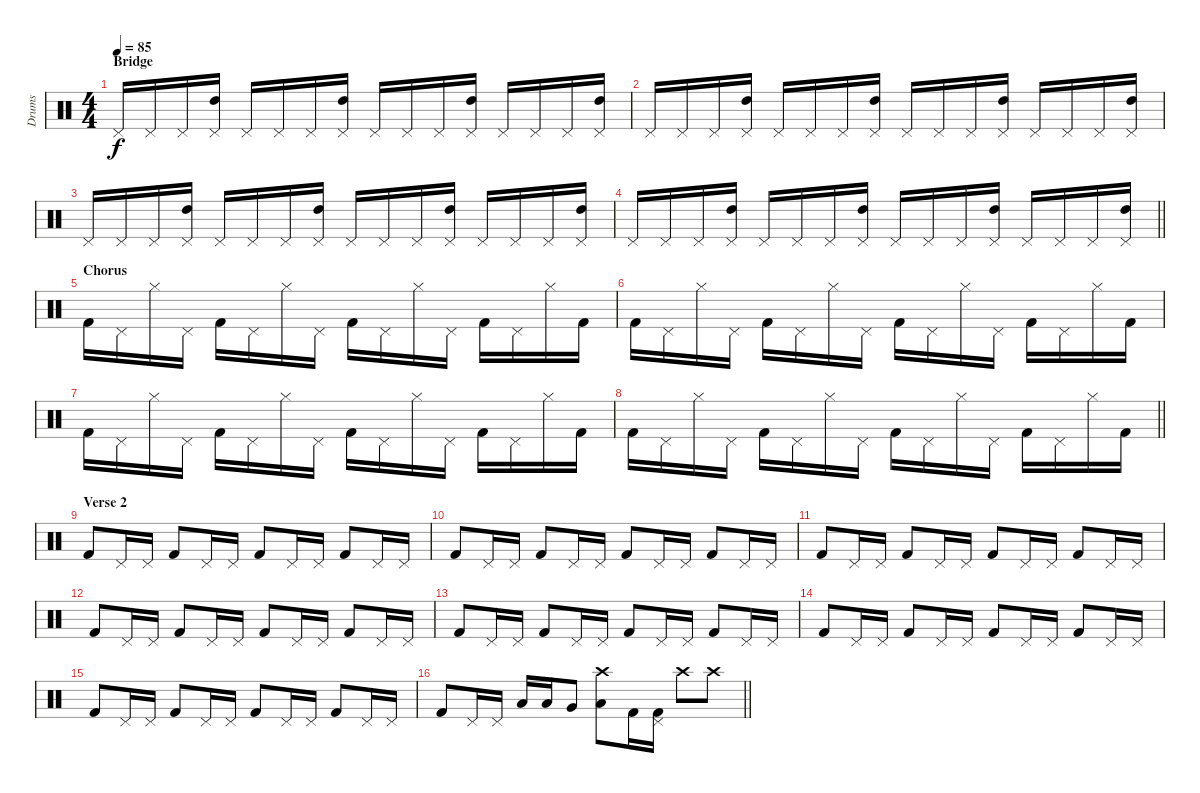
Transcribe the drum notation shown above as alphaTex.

\track ("Drums" "Drums") {instrument percussion}
\staff {score}
\articulation defaults
\ts (4 4)
\section ("" "Bridge")
\tempo 85
\clef neutral
\ks c "Pedal Hi-Hat (hit)".16{dy f} "Pedal Hi-Hat (hit)".16 "Pedal Hi-Hat (hit)".16
("High Tom (hit)" "Pedal Hi-Hat (hit)").16 "Pedal Hi-Hat (hit)".16 "Pedal Hi-Hat (hit)".16 "Pedal Hi-Hat (hit)".16 ("High Tom (hit)" "Pedal Hi-Hat (hit)").16 "Pedal Hi-Hat (hit)".16 "Pedal Hi-Hat (hit)".16 "Pedal Hi-Hat (hit)".16 ("High Tom (hit)" "Pedal Hi-Hat (hit)").16 "Pedal Hi-Hat (hit)".16 "Pedal Hi-Hat (hit)".16 "Pedal Hi-Hat (hit)".16 ("High Tom (hit)" "Pedal Hi-Hat (hit)").16 |
"Pedal Hi-Hat (hit)".16 "Pedal Hi-Hat (hit)".16 "Pedal Hi-Hat (hit)".16 ("High Tom (hit)" "Pedal Hi-Hat (hit)").16 "Pedal Hi-Hat (hit)".16 "Pedal Hi-Hat (hit)".16 "Pedal Hi-Hat (hit)".16 ("High Tom (hit)" "Pedal Hi-Hat (hit)").16 "Pedal Hi-Hat (hit)".16 "Pedal Hi-Hat (hit)".16 "Pedal Hi-Hat (hit)".16 ("High Tom (hit)" "Pedal Hi-Hat (hit)").16 "Pedal Hi-Hat (hit)".16 "Pedal Hi-Hat (hit)".16 "Pedal Hi-Hat (hit)".16 ("High Tom (hit)" "Pedal Hi-Hat (hit)").16 |
"Pedal Hi-Hat (hit)".16 "Pedal Hi-Hat (hit)".16 "Pedal Hi-Hat (hit)".16 ("High Tom (hit)" "Pedal Hi-Hat (hit)").16 "Pedal Hi-Hat (hit)".16 "Pedal Hi-Hat (hit)".16 "Pedal Hi-Hat (hit)".16 ("High Tom (hit)" "Pedal Hi-Hat (hit)").16 "Pedal Hi-Hat (hit)".16 "Pedal Hi-Hat (hit)".16 "Pedal Hi-Hat (hit)".16 ("High Tom (hit)" "Pedal Hi-Hat (hit)").16 "Pedal Hi-Hat (hit)".16 "Pedal Hi-Hat (hit)".16 "Pedal Hi-Hat (hit)".16 ("High Tom (hit)" "Pedal Hi-Hat (hit)").16 |
\barLineRight lightlight "Pedal Hi-Hat (hit)".16 "Pedal Hi-Hat (hit)".16 "Pedal Hi-Hat (hit)".16
("High Tom (hit)" "Pedal Hi-Hat (hit)").16 "Pedal Hi-Hat (hit)".16 "Pedal Hi-Hat (hit)".16 "Pedal Hi-Hat (hit)".16 ("High Tom (hit)" "Pedal Hi-Hat (hit)").16 "Pedal Hi-Hat (hit)".16 "Pedal Hi-Hat (hit)".16 "Pedal Hi-Hat (hit)".16 ("High Tom (hit)" "Pedal Hi-Hat (hit)").16 "Pedal Hi-Hat (hit)".16 "Pedal Hi-Hat (hit)".16 "Pedal Hi-Hat (hit)".16 ("High Tom (hit)" "Pedal Hi-Hat (hit)").16 |
\section ("" "Chorus")
"Kick (hit) 2".16 "Pedal Hi-Hat (hit)".16 "Hi-Hat (closed)".16 "Pedal Hi-Hat (hit)".16 "Kick (hit) 2".16 "Pedal Hi-Hat (hit)".16 "Hi-Hat (closed)".16 "Pedal Hi-Hat (hit)".16 "Kick (hit) 2".16 "Pedal Hi-Hat (hit)".16 "Hi-Hat (closed)".16 "Pedal Hi-Hat (hit)".16 "Kick (hit) 2".16 "Pedal Hi-Hat (hit)".16 "Hi-Hat (closed)".16 "Kick (hit) 2".16 |
"Kick (hit) 2".16 "Pedal Hi-Hat (hit)".16 "Hi-Hat (closed)".16 "Pedal Hi-Hat (hit)".16 "Kick (hit) 2".16 "Pedal Hi-Hat (hit)".16 "Hi-Hat (closed)".16 "Pedal Hi-Hat (hit)".16 "Kick (hit) 2".16 "Pedal Hi-Hat (hit)".16 "Hi-Hat (closed)".16 "Pedal Hi-Hat (hit)".16 "Kick (hit) 2".16 "Pedal Hi-Hat (hit)".16 "Hi-Hat (closed)".16 "Kick (hit) 2".16 |
"Kick (hit) 2".16 "Pedal Hi-Hat (hit)".16 "Hi-Hat (closed)".16 "Pedal Hi-Hat (hit)".16 "Kick (hit) 2".16 "Pedal Hi-Hat (hit)".16 "Hi-Hat (closed)".16 "Pedal Hi-Hat (hit)".16 "Kick (hit) 2".16 "Pedal Hi-Hat (hit)".16 "Hi-Hat (closed)".16 "Pedal Hi-Hat (hit)".16 "Kick (hit) 2".16 "Pedal Hi-Hat (hit)".16 "Hi-Hat (closed)".16 "Kick (hit) 2".16 |
\barLineRight lightlight "Kick (hit) 2".16 "Pedal Hi-Hat (hit)".16 "Hi-Hat (closed)".16 "Pedal Hi-Hat (hit)".16 "Kick (hit) 2".16 "Pedal Hi-Hat (hit)".16 "Hi-Hat (closed)".16 "Pedal Hi-Hat (hit)".16 "Kick (hit) 2".16 "Pedal Hi-Hat (hit)".16 "Hi-Hat (closed)".16 "Pedal Hi-Hat (hit)".16 "Kick (hit) 2".16 "Pedal Hi-Hat (hit)".16 "Hi-Hat (closed)".16 "Kick (hit) 2".16
|
\section ("" "Verse 2")
"Kick (hit) 2".8 "Pedal Hi-Hat (hit)".16 "Pedal Hi-Hat (hit)".16 "Kick (hit) 2".8 "Pedal Hi-Hat (hit)".16 "Pedal Hi-Hat (hit)".16 "Kick (hit) 2".8 "Pedal Hi-Hat (hit)".16 "Pedal Hi-Hat (hit)".16 "Kick (hit) 2".8 "Pedal Hi-Hat (hit)".16 "Pedal Hi-Hat (hit)".16 |
"Kick (hit) 2".8 "Pedal Hi-Hat (hit)".16 "Pedal Hi-Hat (hit)".16 "Kick (hit) 2".8 "Pedal Hi-Hat (hit)".16 "Pedal Hi-Hat (hit)".16 "Kick (hit) 2".8 "Pedal Hi-Hat (hit)".16 "Pedal Hi-Hat (hit)".16 "Kick (hit) 2".8 "Pedal Hi-Hat (hit)".16 "Pedal Hi-Hat (hit)".16 |
"Kick (hit) 2".8 "Pedal Hi-Hat (hit)".16 "Pedal Hi-Hat (hit)".16 "Kick (hit) 2".8 "Pedal Hi-Hat (hit)".16 "Pedal Hi-Hat (hit)".16 "Kick (hit) 2".8 "Pedal Hi-Hat (hit)".16 "Pedal Hi-Hat (hit)".16 "Kick (hit) 2".8 "Pedal Hi-Hat (hit)".16 "Pedal Hi-Hat (hit)".16 |
"Kick (hit) 2".8 "Pedal Hi-Hat (hit)".16 "Pedal Hi-Hat (hit)".16 "Kick (hit) 2".8 "Pedal Hi-Hat (hit)".16 "Pedal Hi-Hat (hit)".16 "Kick (hit) 2".8 "Pedal Hi-Hat (hit)".16 "Pedal Hi-Hat (hit)".16 "Kick (hit) 2".8 "Pedal Hi-Hat (hit)".16 "Pedal Hi-Hat (hit)".16 |
"Kick (hit) 2".8 "Pedal Hi-Hat (hit)".16 "Pedal Hi-Hat (hit)".16 "Kick (hit) 2".8 "Pedal Hi-Hat (hit)".16 "Pedal Hi-Hat (hit)".16 "Kick (hit) 2".8 "Pedal Hi-Hat (hit)".16 "Pedal Hi-Hat (hit)".16 "Kick (hit) 2".8 "Pedal Hi-Hat (hit)".16 "Pedal Hi-Hat (hit)".16 |
"Kick (hit) 2".8 "Pedal Hi-Hat (hit)".16 "Pedal Hi-Hat (hit)".16 "Kick (hit) 2".8 "Pedal Hi-Hat (hit)".16 "Pedal Hi-Hat (hit)".16 "Kick (hit) 2".8 "Pedal Hi-Hat (hit)".16 "Pedal Hi-Hat (hit)".16 "Kick (hit) 2".8 "Pedal Hi-Hat (hit)".16 "Pedal Hi-Hat (hit)".16 |
"Kick (hit) 2".8 "Pedal Hi-Hat (hit)".16 "Pedal Hi-Hat (hit)".16 "Kick (hit) 2".8 "Pedal Hi-Hat (hit)".16 "Pedal Hi-Hat (hit)".16 "Kick (hit) 2".8 "Pedal Hi-Hat (hit)".16 "Pedal Hi-Hat (hit)".16 "Kick (hit) 2".8 "Pedal Hi-Hat (hit)".16 "Pedal Hi-Hat (hit)".16 |
\barLineRight lightlight "Kick (hit) 2".8 "Pedal Hi-Hat (hit)".16 "Pedal Hi-Hat (hit)".16 "Low Tom (hit)".16 "Low Tom (hit)".16 "Very Low Tom (hit)".8
("Crash high (hit)" "Low Floor Tom (hit)").8 "Kick (hit) 2".16 ("Pedal Hi-Hat (hit)" "Kick (hit) 2").16 "Crash high (hit)".8 "Crash high (hit)".8
